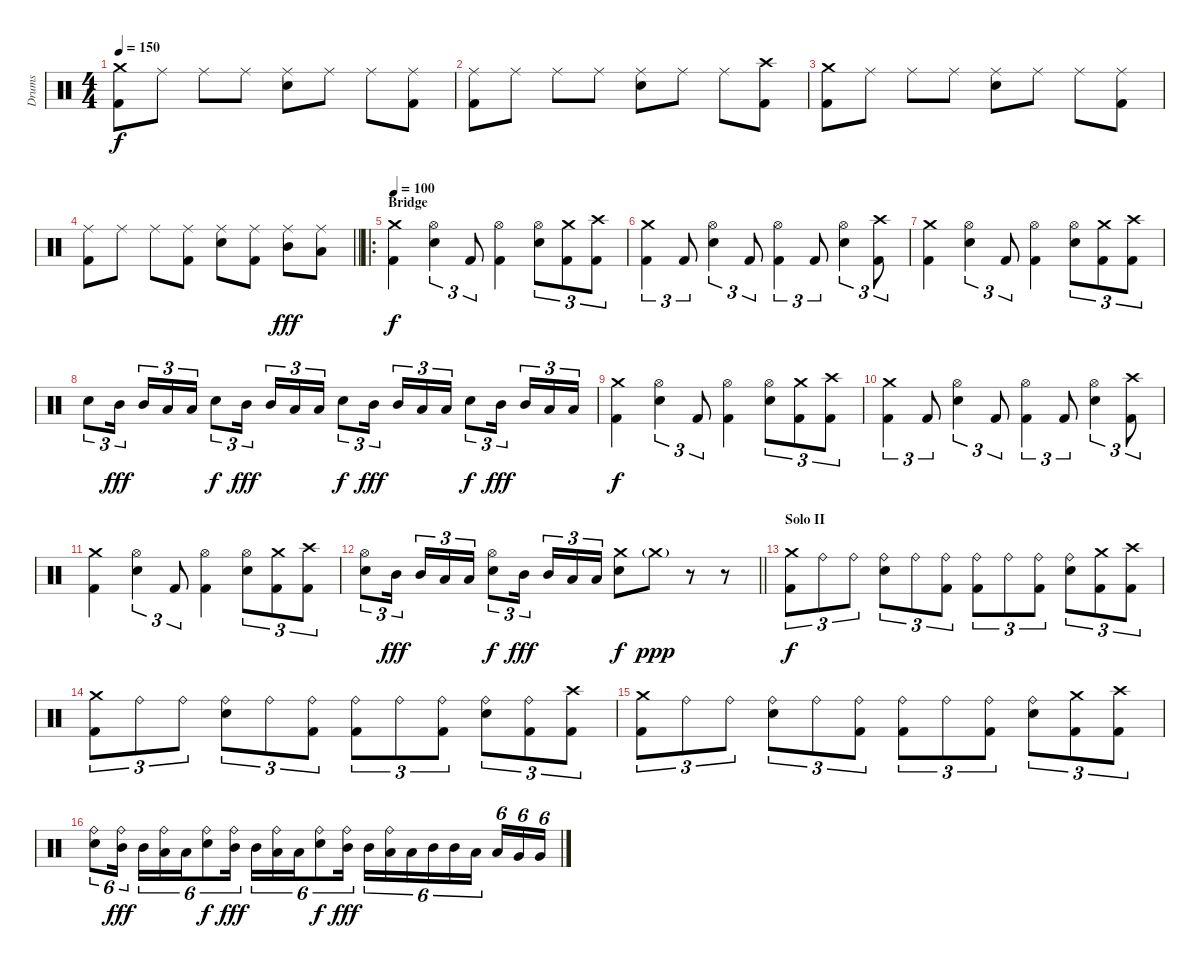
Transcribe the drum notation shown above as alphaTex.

\track ("Drums" "Drums") {instrument percussion}
\staff {score}
\articulation defaults
\ts (4 4)
\tempo 150
\clef neutral
\ks c
("Crash medium (hit)" "Kick (hit) 2").8{dy f} "Ride (middle)".8 "Ride (middle)".8 "Ride (middle)".8 ("Ride (middle)" "Electric Snare (hit)").8 "Ride (middle)".8 "Ride (middle)".8 ("Ride (middle)" "Kick (hit) 2").8 |
("Ride (middle)" "Kick (hit) 2").8 "Ride (middle)".8 "Ride (middle)".8 "Ride (middle)".8 ("Ride (middle)" "Electric Snare (hit)").8 "Ride (middle)".8 "Ride (middle)".8 ("Crash high (hit)" "Kick (hit) 2").8 |
("Crash medium (hit)" "Kick (hit) 2").8 "Ride (middle)".8 "Ride (middle)".8 "Ride (middle)".8 ("Ride (middle)" "Electric Snare (hit)").8 "Ride (middle)".8 "Ride (middle)".8 ("Ride (middle)" "Kick (hit) 2").8 |
\barLineRight lightlight
("Ride (middle)" "Kick (hit) 2").8 "Ride (middle)".8 "Ride (middle)".8 ("Ride (middle)" "Kick (hit) 2").8 ("Ride (middle)" "Electric Snare (hit)").8 ("Ride (middle)" "Kick (hit) 2").8 ("Ride (middle)" "Mid Tom (hit)").8{dy fff} ("Ride (middle)" "Low Tom (hit)").8 |
\ro
\section ("" "Bridge")
\tempo 100
("Crash medium (hit)" "Kick (hit) 2").4{dy f} ("Hi-Hat (open)" "Electric Snare (hit)").4{tu (3 2)} "Kick (hit) 2".8{tu (3 2)} ("Hi-Hat (open)" "Kick (hit) 2").4 ("Hi-Hat (open)" "Electric Snare (hit)").8{tu (3 2)} ("Crash medium (hit)" "Kick (hit) 2").8{tu (3 2)} ("Crash high (hit)" "Kick (hit) 2").8{tu (3 2)} |
("Crash medium (hit)" "Kick (hit) 2").4{tu (3 2)} "Kick (hit) 2".8{tu (3 2)} ("Hi-Hat (open)" "Electric Snare (hit)").4{tu (3 2)} "Kick (hit) 2".8{tu (3 2)} ("Hi-Hat (open)" "Kick (hit) 2").4{tu (3 2)} "Kick (hit) 2".8{tu (3 2)} ("Hi-Hat (open)" "Electric Snare (hit)").4{tu (3 2)} ("Crash high (hit)" "Kick (hit) 2").8{tu (3 2)} |
("Crash medium (hit)" "Kick (hit) 2").4 ("Hi-Hat (open)" "Electric Snare (hit)").4{tu (3 2)} "Kick (hit) 2".8{tu (3 2)} ("Hi-Hat (open)" "Kick (hit) 2").4 ("Hi-Hat (open)" "Electric Snare (hit)").8{tu (3 2)} ("Crash medium (hit)" "Kick (hit) 2").8{tu (3 2)} ("Crash high (hit)" "Kick (hit) 2").8{tu (3 2)} |
"Electric Snare (hit)".8{tu (3 2)} "Mid Tom (hit)".16{tu (3 2) dy fff beam splitsecondary} "Mid Tom (hit)".16{tu (3 2)} "Low Tom (hit)".16{tu (3 2)} "Low Tom (hit)".16{tu (3 2)} "Electric Snare (hit)".8{tu (3 2) dy f} "Mid Tom (hit)".16{tu (3 2) dy fff beam splitsecondary} "Mid Tom (hit)".16{tu (3 2)} "Low Tom (hit)".16{tu (3 2)} "Low Tom (hit)".16{tu (3 2)} "Electric Snare (hit)".8{tu (3 2) dy f} "Mid Tom (hit)".16{tu (3 2) dy fff beam splitsecondary} "Mid Tom (hit)".16{tu (3 2)} "Low Tom (hit)".16{tu (3 2)} "Low Tom (hit)".16{tu (3 2)} "Electric Snare (hit)".8{tu (3 2) dy f} "Mid Tom (hit)".16{tu (3 2) dy fff beam splitsecondary} "Mid Tom (hit)".16{tu (3 2)} "Low Tom (hit)".16{tu (3 2)} "Low Tom (hit)".16{tu (3 2)} |
("Crash medium (hit)" "Kick (hit) 2").4{dy f} ("Hi-Hat (open)" "Electric Snare (hit)").4{tu (3 2)} "Kick (hit) 2".8{tu (3 2)} ("Hi-Hat (open)" "Kick (hit) 2").4 ("Hi-Hat (open)" "Electric Snare (hit)").8{tu (3 2)} ("Crash medium (hit)" "Kick (hit) 2").8{tu (3 2)} ("Crash high (hit)" "Kick (hit) 2").8{tu (3 2)} |
("Crash medium (hit)" "Kick (hit) 2").4{tu (3 2)} "Kick (hit) 2".8{tu (3 2)} ("Hi-Hat (open)" "Electric Snare (hit)").4{tu (3 2)} "Kick (hit) 2".8{tu (3 2)} ("Hi-Hat (open)" "Kick (hit) 2").4{tu (3 2)} "Kick (hit) 2".8{tu (3 2)} ("Hi-Hat (open)" "Electric Snare (hit)").4{tu (3 2)} ("Crash high (hit)" "Kick (hit) 2").8{tu (3 2)} |
("Crash medium (hit)" "Kick (hit) 2").4 ("Hi-Hat (open)" "Electric Snare (hit)").4{tu (3 2)} "Kick (hit) 2".8{tu (3 2)} ("Hi-Hat (open)" "Kick (hit) 2").4 ("Hi-Hat (open)" "Electric Snare (hit)").8{tu (3 2)} ("Crash medium (hit)" "Kick (hit) 2").8{tu (3 2)} ("Crash high (hit)" "Kick (hit) 2").8{tu (3 2)} |
\barLineRight lightlight
("Hi-Hat (open)" "Electric Snare (hit)").8{tu (3 2)} "Mid Tom (hit)".16{tu (3 2) dy fff beam splitsecondary} "Mid Tom (hit)".16{tu (3 2)} "Low Tom (hit)".16{tu (3 2)} "Low Tom (hit)".16{tu (3 2)} ("Hi-Hat (open)" "Electric Snare (hit)").8{tu (3 2) dy f} "Mid Tom (hit)".16{tu (3 2) dy fff beam splitsecondary} "Mid Tom (hit)".16{tu (3 2)} "Low Tom (hit)".16{tu (3 2)} "Low Tom (hit)".16{tu (3 2)} ("Crash medium (hit)" "Electric Snare (hit)").8{dy f} "Crash medium (hit)"{g}.8{dy ppp} r.8 r.8 |
\section ("" "Solo II")
("Crash medium (hit)" "Kick (hit) 2").8{tu (3 2) dy f} "Ride (bell)".8{tu (3 2)} "Ride (bell)".8{tu (3 2)} ("Ride (bell)" "Electric Snare (hit)").8{tu (3 2)} "Ride (bell)".8{tu (3 2)} ("Ride (bell)" "Kick (hit) 2").8{tu (3 2)} ("Ride (bell)" "Kick (hit) 2").8{tu (3 2)} "Ride (bell)".8{tu (3 2)} ("Ride (bell)" "Kick (hit) 2").8{tu (3 2)} ("Ride (bell)" "Electric Snare (hit)").8{tu (3 2)} ("Crash medium (hit)" "Kick (hit) 2").8{tu (3 2)} ("Crash high (hit)" "Kick (hit) 2").8{tu (3 2)} |
("Crash medium (hit)" "Kick (hit) 2").8{tu (3 2)} "Ride (bell)".8{tu (3 2)} "Ride (bell)".8{tu (3 2)} ("Ride (bell)" "Electric Snare (hit)").8{tu (3 2)} "Ride (bell)".8{tu (3 2)} ("Ride (bell)" "Kick (hit) 2").8{tu (3 2)} ("Ride (bell)" "Kick (hit) 2").8{tu (3 2)} "Ride (bell)".8{tu (3 2)} ("Ride (bell)" "Kick (hit) 2").8{tu (3 2)} ("Ride (bell)" "Electric Snare (hit)").8{tu (3 2)} ("Ride (bell)" "Kick (hit) 2").8{tu (3 2)} ("Crash high (hit)" "Kick (hit) 2").8{tu (3 2)} |
("Crash medium (hit)" "Kick (hit) 2").8{tu (3 2)} "Ride (bell)".8{tu (3 2)} "Ride (bell)".8{tu (3 2)} ("Ride (bell)" "Electric Snare (hit)").8{tu (3 2)} "Ride (bell)".8{tu (3 2)} ("Ride (bell)" "Kick (hit) 2").8{tu (3 2)} ("Ride (bell)" "Kick (hit) 2").8{tu (3 2)} "Ride (bell)".8{tu (3 2)} ("Ride (bell)" "Kick (hit) 2").8{tu (3 2)} ("Ride (bell)" "Electric Snare (hit)").8{tu (3 2)} ("Crash medium (hit)" "Kick (hit) 2").8{tu (3 2)} ("Crash high (hit)" "Kick (hit) 2").8{tu (3 2)} |
("Ride (bell)" "Electric Snare (hit)").8{tu (6 4)} ("Ride (bell)" "Mid Tom (hit)").16{tu (6 4) dy fff beam splitsecondary} "Mid Tom (hit)".16{tu (6 4)} ("Ride (bell)" "Low Tom (hit)").16{tu (6 4)} "Low Tom (hit)".16{tu (6 4)} ("Ride (bell)" "Electric Snare (hit)").8{tu (6 4) dy f} ("Ride (bell)" "Mid Tom (hit)").16{tu (6 4) dy fff beam splitsecondary} "Mid Tom (hit)".16{tu (6 4)} ("Ride (bell)" "Low Tom (hit)").16{tu (6 4)} "Low Tom (hit)".16{tu (6 4)} ("Ride (bell)" "Electric Snare (hit)").8{tu (6 4) dy f} ("Ride (bell)" "Mid Tom (hit)").16{tu (6 4) dy fff beam splitsecondary} "Mid Tom (hit)".16{tu (6 4)} ("Ride (bell)" "Low Tom (hit)").16{tu (6 4)} "Low Tom (hit)".16{tu (6 4)} "Mid Tom (hit)".16{tu (6 4)} "Mid Tom (hit)".16{tu (6 4)} "Low Tom (hit)".16{tu (6 4) beam splitsecondary} "Low Tom (hit)".16{tu (6 4)} "Very Low Tom (hit)".16{tu (6 4)} "Very Low Tom (hit)".16{tu (6 4)}
